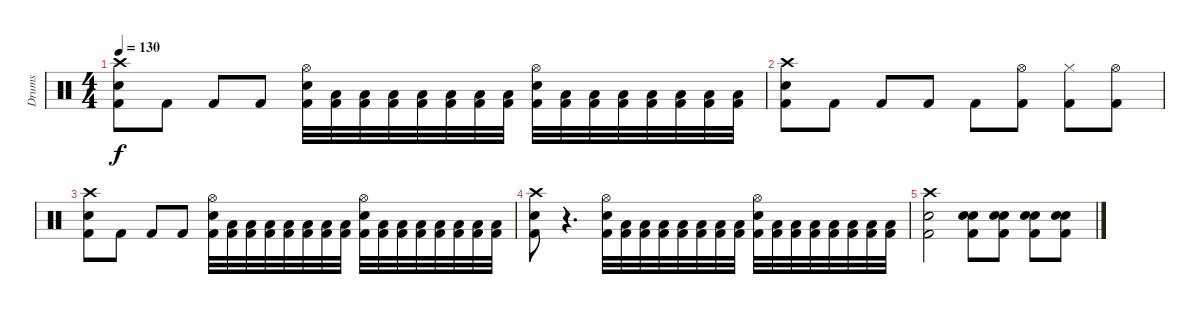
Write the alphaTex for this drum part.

\track ("Drums" "Drums") {instrument percussion}
\staff {score}
\articulation defaults
\ts (4 4)
\tempo 130
\clef neutral
\ks c
("Crash high (hit)" "Electric Snare (hit)" "Kick (hit) 2").8{dy f} "Kick (hit) 2".8 "Kick (hit) 2".8 "Kick (hit) 2".8 ("Hi-Hat (open)" "Electric Snare (hit)" "Kick (hit) 2").32 ("Low Floor Tom (hit)" "Kick (hit) 2").32 ("Low Floor Tom (hit)" "Kick (hit) 2").32 ("Low Floor Tom (hit)" "Kick (hit) 2").32 ("Low Floor Tom (hit)" "Kick (hit) 2").32 ("Low Floor Tom (hit)" "Kick (hit) 2").32 ("Low Floor Tom (hit)" "Kick (hit) 2").32 ("Low Floor Tom (hit)" "Kick (hit) 2").32 ("Hi-Hat (open)" "Electric Snare (hit)" "Kick (hit) 2").32 ("Low Floor Tom (hit)" "Kick (hit) 2").32 ("Low Floor Tom (hit)" "Kick (hit) 2").32 ("Low Floor Tom (hit)" "Kick (hit) 2").32 ("Low Floor Tom (hit)" "Kick (hit) 2").32 ("Low Floor Tom (hit)" "Kick (hit) 2").32 ("Low Floor Tom (hit)" "Kick (hit) 2").32 ("Low Floor Tom (hit)" "Kick (hit) 2").32 |
("Crash high (hit)" "Electric Snare (hit)" "Kick (hit) 2").8 "Kick (hit) 2".8 "Kick (hit) 2".8 "Kick (hit) 2".8 "Kick (hit) 2".8 ("Hi-Hat (open)" "Kick (hit) 2").8 ("Hi-Hat (closed)" "Kick (hit) 2").8 ("Hi-Hat (open)" "Kick (hit) 2").8 |
("Crash high (hit)" "Electric Snare (hit)" "Kick (hit) 2").8 "Kick (hit) 2".8 "Kick (hit) 2".8 "Kick (hit) 2".8 ("Hi-Hat (open)" "Electric Snare (hit)" "Kick (hit) 2").32 ("Low Floor Tom (hit)" "Kick (hit) 2").32 ("Low Floor Tom (hit)" "Kick (hit) 2").32 ("Low Floor Tom (hit)" "Kick (hit) 2").32 ("Low Floor Tom (hit)" "Kick (hit) 2").32 ("Low Floor Tom (hit)" "Kick (hit) 2").32 ("Low Floor Tom (hit)" "Kick (hit) 2").32 ("Low Floor Tom (hit)" "Kick (hit) 2").32 ("Hi-Hat (open)" "Electric Snare (hit)" "Kick (hit) 2").32 ("Low Floor Tom (hit)" "Kick (hit) 2").32 ("Low Floor Tom (hit)" "Kick (hit) 2").32 ("Low Floor Tom (hit)" "Kick (hit) 2").32 ("Low Floor Tom (hit)" "Kick (hit) 2").32 ("Low Floor Tom (hit)" "Kick (hit) 2").32 ("Low Floor Tom (hit)" "Kick (hit) 2").32 ("Low Floor Tom (hit)" "Kick (hit) 2").32 |
("Crash high (hit)" "Electric Snare (hit)" "Kick (hit) 2").8 r.4{d} ("Hi-Hat (open)" "Electric Snare (hit)" "Kick (hit) 2").32 ("Low Floor Tom (hit)" "Kick (hit) 2").32 ("Low Floor Tom (hit)" "Kick (hit) 2").32 ("Low Floor Tom (hit)" "Kick (hit) 2").32 ("Low Floor Tom (hit)" "Kick (hit) 2").32 ("Low Floor Tom (hit)" "Kick (hit) 2").32 ("Low Floor Tom (hit)" "Kick (hit) 2").32 ("Low Floor Tom (hit)" "Kick (hit) 2").32 ("Hi-Hat (open)" "Electric Snare (hit)" "Kick (hit) 2").32 ("Low Floor Tom (hit)" "Kick (hit) 2").32 ("Low Floor Tom (hit)" "Kick (hit) 2").32 ("Low Floor Tom (hit)" "Kick (hit) 2").32 ("Low Floor Tom (hit)" "Kick (hit) 2").32 ("Low Floor Tom (hit)" "Kick (hit) 2").32 ("Low Floor Tom (hit)" "Kick (hit) 2").32 ("Low Floor Tom (hit)" "Kick (hit) 2").32 |
("Crash high (hit)" "Electric Snare (hit)" "Kick (hit) 2").2 ("Snare (hit) 2" "Electric Snare (hit)" "Kick (hit) 2").8 ("Snare (hit) 2" "Electric Snare (hit)" "Kick (hit) 2").8 ("Snare (hit) 2" "Electric Snare (hit)" "Kick (hit) 2").8 ("Snare (hit) 2" "Electric Snare (hit)" "Kick (hit) 2").8
